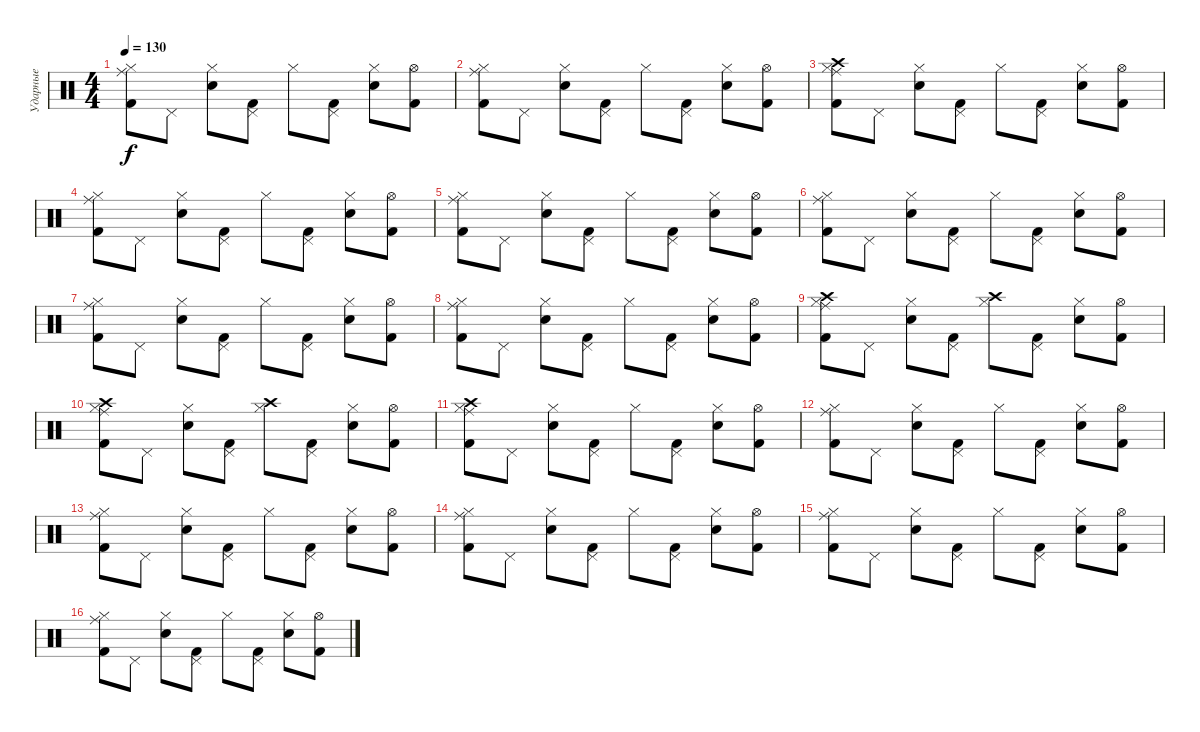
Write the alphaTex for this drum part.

\track ("Ударные" "Ударные") {instrument percussion}
\staff {score}
\articulation defaults
\ts (4 4)
\tempo 130
\clef neutral
\ks c
("Hi-Hat (closed)" "Kick (hit) 2" "Ride (middle)").8{dy f} "Pedal Hi-Hat (hit)".8 ("Hi-Hat (closed)" "Snare (hit) 2").8 ("Pedal Hi-Hat (hit)" "Kick (hit) 2").8 "Hi-Hat (closed)".8 ("Pedal Hi-Hat (hit)" "Kick (hit) 2").8 ("Hi-Hat (closed)" "Snare (hit) 2").8 ("Hi-Hat (open)" "Kick (hit) 2").8 |
("Hi-Hat (closed)" "Kick (hit) 2" "Ride (middle)").8 "Pedal Hi-Hat (hit)".8 ("Hi-Hat (closed)" "Snare (hit) 2").8 ("Pedal Hi-Hat (hit)" "Kick (hit) 2").8 "Hi-Hat (closed)".8 ("Pedal Hi-Hat (hit)" "Kick (hit) 2").8 ("Hi-Hat (closed)" "Snare (hit) 2").8 ("Hi-Hat (open)" "Kick (hit) 2").8 |
("Hi-Hat (closed)" "Kick (hit) 2" "Ride (middle)" "Crash high (hit)").8 "Pedal Hi-Hat (hit)".8 ("Hi-Hat (closed)" "Snare (hit) 2").8 ("Pedal Hi-Hat (hit)" "Kick (hit) 2").8 "Hi-Hat (closed)".8 ("Pedal Hi-Hat (hit)" "Kick (hit) 2").8 ("Hi-Hat (closed)" "Snare (hit) 2").8 ("Hi-Hat (open)" "Kick (hit) 2").8 |
("Hi-Hat (closed)" "Kick (hit) 2" "Ride (middle)").8 "Pedal Hi-Hat (hit)".8 ("Hi-Hat (closed)" "Snare (hit) 2").8 ("Pedal Hi-Hat (hit)" "Kick (hit) 2").8 "Hi-Hat (closed)".8 ("Pedal Hi-Hat (hit)" "Kick (hit) 2").8 ("Hi-Hat (closed)" "Snare (hit) 2").8 ("Hi-Hat (open)" "Kick (hit) 2").8 |
("Hi-Hat (closed)" "Kick (hit) 2" "Ride (middle)").8 "Pedal Hi-Hat (hit)".8 ("Hi-Hat (closed)" "Snare (hit) 2").8 ("Pedal Hi-Hat (hit)" "Kick (hit) 2").8 "Hi-Hat (closed)".8 ("Pedal Hi-Hat (hit)" "Kick (hit) 2").8 ("Hi-Hat (closed)" "Snare (hit) 2").8 ("Hi-Hat (open)" "Kick (hit) 2").8 |
("Hi-Hat (closed)" "Kick (hit) 2" "Ride (middle)").8 "Pedal Hi-Hat (hit)".8 ("Hi-Hat (closed)" "Snare (hit) 2").8 ("Pedal Hi-Hat (hit)" "Kick (hit) 2").8 "Hi-Hat (closed)".8 ("Pedal Hi-Hat (hit)" "Kick (hit) 2").8 ("Hi-Hat (closed)" "Snare (hit) 2").8 ("Hi-Hat (open)" "Kick (hit) 2").8 |
("Hi-Hat (closed)" "Kick (hit) 2" "Ride (middle)").8 "Pedal Hi-Hat (hit)".8 ("Hi-Hat (closed)" "Snare (hit) 2").8 ("Pedal Hi-Hat (hit)" "Kick (hit) 2").8 "Hi-Hat (closed)".8 ("Pedal Hi-Hat (hit)" "Kick (hit) 2").8 ("Hi-Hat (closed)" "Snare (hit) 2").8 ("Hi-Hat (open)" "Kick (hit) 2").8 |
("Hi-Hat (closed)" "Kick (hit) 2" "Ride (middle)").8 "Pedal Hi-Hat (hit)".8 ("Hi-Hat (closed)" "Snare (hit) 2").8 ("Pedal Hi-Hat (hit)" "Kick (hit) 2").8 "Hi-Hat (closed)".8 ("Pedal Hi-Hat (hit)" "Kick (hit) 2").8 ("Hi-Hat (closed)" "Snare (hit) 2").8 ("Hi-Hat (open)" "Kick (hit) 2").8 |
("Hi-Hat (closed)" "Kick (hit) 2" "Ride (middle)" "Crash high (hit)").8 "Pedal Hi-Hat (hit)".8 ("Hi-Hat (closed)" "Snare (hit) 2").8 ("Pedal Hi-Hat (hit)" "Kick (hit) 2").8 ("Hi-Hat (closed)" "Crash high (hit)").8 ("Pedal Hi-Hat (hit)" "Kick (hit) 2").8 ("Hi-Hat (closed)" "Snare (hit) 2").8 ("Hi-Hat (open)" "Kick (hit) 2").8 |
("Hi-Hat (closed)" "Kick (hit) 2" "Ride (middle)" "Crash high (hit)").8 "Pedal Hi-Hat (hit)".8 ("Hi-Hat (closed)" "Snare (hit) 2").8 ("Pedal Hi-Hat (hit)" "Kick (hit) 2").8 ("Hi-Hat (closed)" "Crash high (hit)").8 ("Pedal Hi-Hat (hit)" "Kick (hit) 2").8 ("Hi-Hat (closed)" "Snare (hit) 2").8 ("Hi-Hat (open)" "Kick (hit) 2").8 |
("Hi-Hat (closed)" "Kick (hit) 2" "Ride (middle)" "Crash high (hit)").8 "Pedal Hi-Hat (hit)".8 ("Hi-Hat (closed)" "Snare (hit) 2").8 ("Pedal Hi-Hat (hit)" "Kick (hit) 2").8 "Hi-Hat (closed)".8 ("Pedal Hi-Hat (hit)" "Kick (hit) 2").8 ("Hi-Hat (closed)" "Snare (hit) 2").8 ("Hi-Hat (open)" "Kick (hit) 2").8 |
("Hi-Hat (closed)" "Kick (hit) 2" "Ride (middle)").8 "Pedal Hi-Hat (hit)".8 ("Hi-Hat (closed)" "Snare (hit) 2").8 ("Pedal Hi-Hat (hit)" "Kick (hit) 2").8 "Hi-Hat (closed)".8 ("Pedal Hi-Hat (hit)" "Kick (hit) 2").8 ("Hi-Hat (closed)" "Snare (hit) 2").8 ("Hi-Hat (open)" "Kick (hit) 2").8 |
("Hi-Hat (closed)" "Kick (hit) 2" "Ride (middle)").8 "Pedal Hi-Hat (hit)".8 ("Hi-Hat (closed)" "Snare (hit) 2").8 ("Pedal Hi-Hat (hit)" "Kick (hit) 2").8 "Hi-Hat (closed)".8 ("Pedal Hi-Hat (hit)" "Kick (hit) 2").8 ("Hi-Hat (closed)" "Snare (hit) 2").8 ("Hi-Hat (open)" "Kick (hit) 2").8 |
("Hi-Hat (closed)" "Kick (hit) 2" "Ride (middle)").8 "Pedal Hi-Hat (hit)".8 ("Hi-Hat (closed)" "Snare (hit) 2").8 ("Pedal Hi-Hat (hit)" "Kick (hit) 2").8 "Hi-Hat (closed)".8 ("Pedal Hi-Hat (hit)" "Kick (hit) 2").8 ("Hi-Hat (closed)" "Snare (hit) 2").8 ("Hi-Hat (open)" "Kick (hit) 2").8 |
("Hi-Hat (closed)" "Kick (hit) 2" "Ride (middle)").8 "Pedal Hi-Hat (hit)".8 ("Hi-Hat (closed)" "Snare (hit) 2").8 ("Pedal Hi-Hat (hit)" "Kick (hit) 2").8 "Hi-Hat (closed)".8 ("Pedal Hi-Hat (hit)" "Kick (hit) 2").8 ("Hi-Hat (closed)" "Snare (hit) 2").8 ("Hi-Hat (open)" "Kick (hit) 2").8 |
("Hi-Hat (closed)" "Kick (hit) 2" "Ride (middle)").8 "Pedal Hi-Hat (hit)".8 ("Hi-Hat (closed)" "Snare (hit) 2").8 ("Pedal Hi-Hat (hit)" "Kick (hit) 2").8 "Hi-Hat (closed)".8 ("Pedal Hi-Hat (hit)" "Kick (hit) 2").8 ("Hi-Hat (closed)" "Snare (hit) 2").8 ("Hi-Hat (open)" "Kick (hit) 2").8
